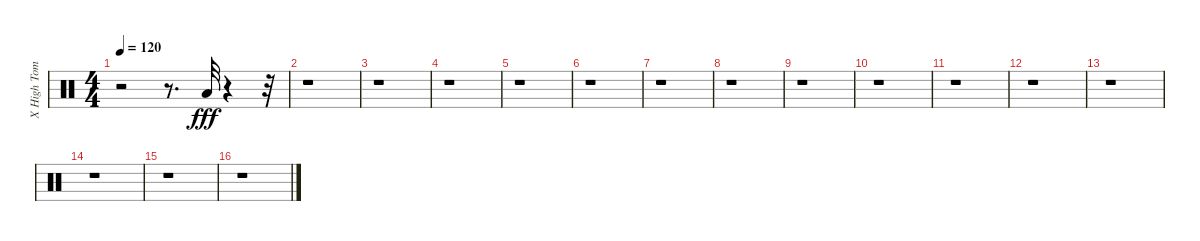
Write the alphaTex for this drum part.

\track ("X High Tom          " "X High Tom") {instrument percussion}
\staff {score}
\articulation defaults
\ts (4 4)
\tempo 120
\clef neutral
\ks c
r.2{dy fff} r.8{d} "Low Tom (hit)".32 r.4 r.32 |
r.1 |
r.1 |
r.1 |
r.1 |
r.1 |
r.1 |
r.1 |
r.1 |
r.1 |
r.1 |
r.1 |
r.1 |
r.1 |
r.1 |
r.1
